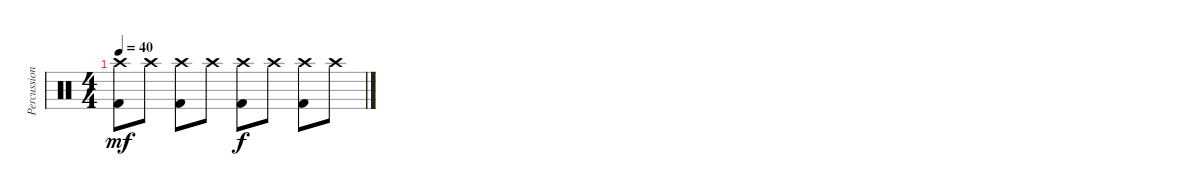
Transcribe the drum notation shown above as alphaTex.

\track ("Percussion" "Percussion") {instrument percussion}
\staff {score}
\articulation defaults
\ts (4 4)
\tempo 40
\clef neutral
\ks c
("Crash high (hit)" "Kick (hit) 2").8{dy mf} "Crash high (hit)".8 ("Crash high (hit)" "Kick (hit) 2").8 "Crash high (hit)".8 ("Crash high (hit)" "Kick (hit) 2").8{dy f} "Crash high (hit)".8 ("Crash high (hit)" "Kick (hit) 2").8 "Crash high (hit)".8
